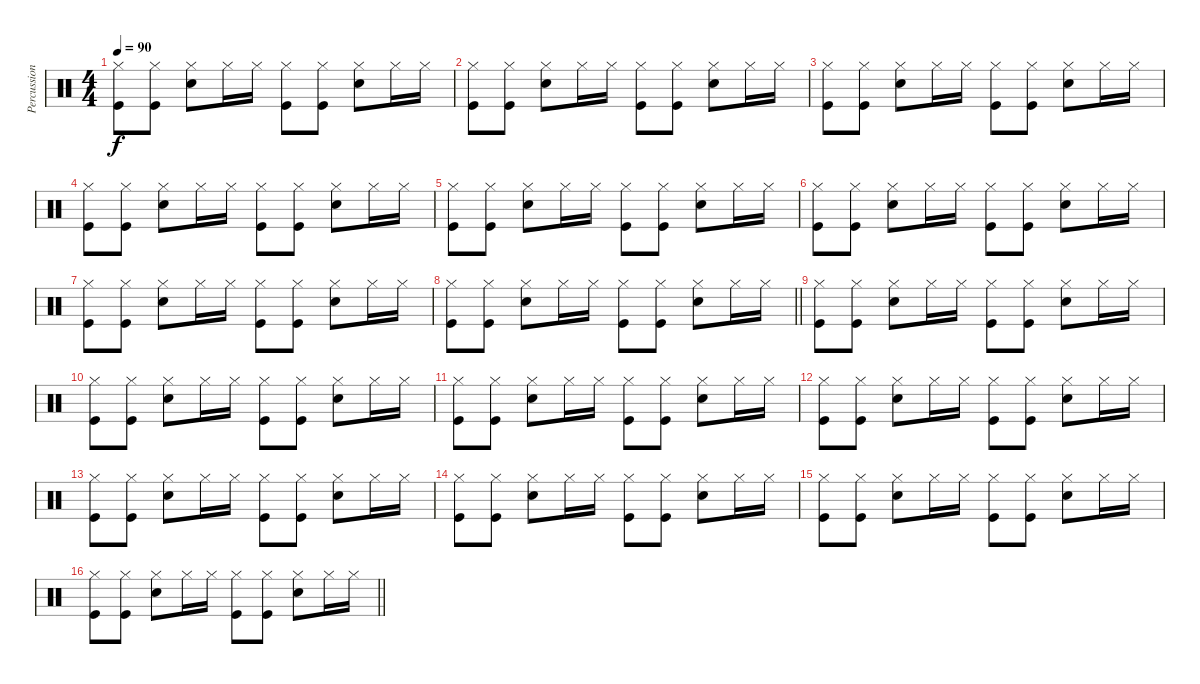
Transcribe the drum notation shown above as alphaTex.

\track ("Percussion" "Percussion") {instrument percussion}
\staff {score}
\articulation defaults
\ts (4 4)
\tempo 90
\clef neutral
\ks c
("Hi-Hat (closed)" "Kick (hit)").8{dy f} ("Hi-Hat (closed)" "Kick (hit)").8 ("Hi-Hat (closed)" "Snare (hit) 2").8 "Hi-Hat (closed)".16 "Hi-Hat (closed)".16 ("Hi-Hat (closed)" "Kick (hit)").8 ("Hi-Hat (closed)" "Kick (hit)").8 ("Hi-Hat (closed)" "Snare (hit) 2").8 "Hi-Hat (closed)".16 "Hi-Hat (closed)".16 |
("Hi-Hat (closed)" "Kick (hit)").8 ("Hi-Hat (closed)" "Kick (hit)").8 ("Hi-Hat (closed)" "Snare (hit) 2").8 "Hi-Hat (closed)".16 "Hi-Hat (closed)".16 ("Hi-Hat (closed)" "Kick (hit)").8 ("Hi-Hat (closed)" "Kick (hit)").8 ("Hi-Hat (closed)" "Snare (hit) 2").8 "Hi-Hat (closed)".16 "Hi-Hat (closed)".16 |
("Hi-Hat (closed)" "Kick (hit)").8 ("Hi-Hat (closed)" "Kick (hit)").8 ("Hi-Hat (closed)" "Snare (hit) 2").8 "Hi-Hat (closed)".16 "Hi-Hat (closed)".16 ("Hi-Hat (closed)" "Kick (hit)").8 ("Hi-Hat (closed)" "Kick (hit)").8 ("Hi-Hat (closed)" "Snare (hit) 2").8 "Hi-Hat (closed)".16 "Hi-Hat (closed)".16 |
("Hi-Hat (closed)" "Kick (hit)").8 ("Hi-Hat (closed)" "Kick (hit)").8 ("Hi-Hat (closed)" "Snare (hit) 2").8 "Hi-Hat (closed)".16 "Hi-Hat (closed)".16 ("Hi-Hat (closed)" "Kick (hit)").8 ("Hi-Hat (closed)" "Kick (hit)").8 ("Hi-Hat (closed)" "Snare (hit) 2").8 "Hi-Hat (closed)".16 "Hi-Hat (closed)".16 |
("Hi-Hat (closed)" "Kick (hit)").8 ("Hi-Hat (closed)" "Kick (hit)").8 ("Hi-Hat (closed)" "Snare (hit) 2").8 "Hi-Hat (closed)".16 "Hi-Hat (closed)".16 ("Hi-Hat (closed)" "Kick (hit)").8 ("Hi-Hat (closed)" "Kick (hit)").8 ("Hi-Hat (closed)" "Snare (hit) 2").8 "Hi-Hat (closed)".16 "Hi-Hat (closed)".16 |
("Hi-Hat (closed)" "Kick (hit)").8 ("Hi-Hat (closed)" "Kick (hit)").8 ("Hi-Hat (closed)" "Snare (hit) 2").8 "Hi-Hat (closed)".16 "Hi-Hat (closed)".16 ("Hi-Hat (closed)" "Kick (hit)").8 ("Hi-Hat (closed)" "Kick (hit)").8 ("Hi-Hat (closed)" "Snare (hit) 2").8 "Hi-Hat (closed)".16 "Hi-Hat (closed)".16 |
("Hi-Hat (closed)" "Kick (hit)").8 ("Hi-Hat (closed)" "Kick (hit)").8 ("Hi-Hat (closed)" "Snare (hit) 2").8 "Hi-Hat (closed)".16 "Hi-Hat (closed)".16 ("Hi-Hat (closed)" "Kick (hit)").8 ("Hi-Hat (closed)" "Kick (hit)").8 ("Hi-Hat (closed)" "Snare (hit) 2").8 "Hi-Hat (closed)".16 "Hi-Hat (closed)".16 |
\barLineRight lightlight
("Hi-Hat (closed)" "Kick (hit)").8 ("Hi-Hat (closed)" "Kick (hit)").8 ("Hi-Hat (closed)" "Snare (hit) 2").8 "Hi-Hat (closed)".16 "Hi-Hat (closed)".16 ("Hi-Hat (closed)" "Kick (hit)").8 ("Hi-Hat (closed)" "Kick (hit)").8 ("Hi-Hat (closed)" "Snare (hit) 2").8 "Hi-Hat (closed)".16 "Hi-Hat (closed)".16 |
("Hi-Hat (closed)" "Kick (hit)").8 ("Hi-Hat (closed)" "Kick (hit)").8 ("Hi-Hat (closed)" "Snare (hit) 2").8 "Hi-Hat (closed)".16 "Hi-Hat (closed)".16 ("Hi-Hat (closed)" "Kick (hit)").8 ("Hi-Hat (closed)" "Kick (hit)").8 ("Hi-Hat (closed)" "Snare (hit) 2").8 "Hi-Hat (closed)".16 "Hi-Hat (closed)".16 |
("Hi-Hat (closed)" "Kick (hit)").8 ("Hi-Hat (closed)" "Kick (hit)").8 ("Hi-Hat (closed)" "Snare (hit) 2").8 "Hi-Hat (closed)".16 "Hi-Hat (closed)".16 ("Hi-Hat (closed)" "Kick (hit)").8 ("Hi-Hat (closed)" "Kick (hit)").8 ("Hi-Hat (closed)" "Snare (hit) 2").8 "Hi-Hat (closed)".16 "Hi-Hat (closed)".16 |
("Hi-Hat (closed)" "Kick (hit)").8 ("Hi-Hat (closed)" "Kick (hit)").8 ("Hi-Hat (closed)" "Snare (hit) 2").8 "Hi-Hat (closed)".16 "Hi-Hat (closed)".16 ("Hi-Hat (closed)" "Kick (hit)").8 ("Hi-Hat (closed)" "Kick (hit)").8 ("Hi-Hat (closed)" "Snare (hit) 2").8 "Hi-Hat (closed)".16 "Hi-Hat (closed)".16 |
("Hi-Hat (closed)" "Kick (hit)").8 ("Hi-Hat (closed)" "Kick (hit)").8 ("Hi-Hat (closed)" "Snare (hit) 2").8 "Hi-Hat (closed)".16 "Hi-Hat (closed)".16 ("Hi-Hat (closed)" "Kick (hit)").8 ("Hi-Hat (closed)" "Kick (hit)").8 ("Hi-Hat (closed)" "Snare (hit) 2").8 "Hi-Hat (closed)".16 "Hi-Hat (closed)".16 |
("Hi-Hat (closed)" "Kick (hit)").8 ("Hi-Hat (closed)" "Kick (hit)").8 ("Hi-Hat (closed)" "Snare (hit) 2").8 "Hi-Hat (closed)".16 "Hi-Hat (closed)".16 ("Hi-Hat (closed)" "Kick (hit)").8 ("Hi-Hat (closed)" "Kick (hit)").8 ("Hi-Hat (closed)" "Snare (hit) 2").8 "Hi-Hat (closed)".16 "Hi-Hat (closed)".16 |
("Hi-Hat (closed)" "Kick (hit)").8 ("Hi-Hat (closed)" "Kick (hit)").8 ("Hi-Hat (closed)" "Snare (hit) 2").8 "Hi-Hat (closed)".16 "Hi-Hat (closed)".16 ("Hi-Hat (closed)" "Kick (hit)").8 ("Hi-Hat (closed)" "Kick (hit)").8 ("Hi-Hat (closed)" "Snare (hit) 2").8 "Hi-Hat (closed)".16 "Hi-Hat (closed)".16 |
("Hi-Hat (closed)" "Kick (hit)").8 ("Hi-Hat (closed)" "Kick (hit)").8 ("Hi-Hat (closed)" "Snare (hit) 2").8 "Hi-Hat (closed)".16 "Hi-Hat (closed)".16 ("Hi-Hat (closed)" "Kick (hit)").8 ("Hi-Hat (closed)" "Kick (hit)").8 ("Hi-Hat (closed)" "Snare (hit) 2").8 "Hi-Hat (closed)".16 "Hi-Hat (closed)".16 |
\barLineRight lightlight
("Hi-Hat (closed)" "Kick (hit)").8 ("Hi-Hat (closed)" "Kick (hit)").8 ("Hi-Hat (closed)" "Snare (hit) 2").8 "Hi-Hat (closed)".16 "Hi-Hat (closed)".16 ("Hi-Hat (closed)" "Kick (hit)").8 ("Hi-Hat (closed)" "Kick (hit)").8 ("Hi-Hat (closed)" "Snare (hit) 2").8 "Hi-Hat (closed)".16 "Hi-Hat (closed)".16
